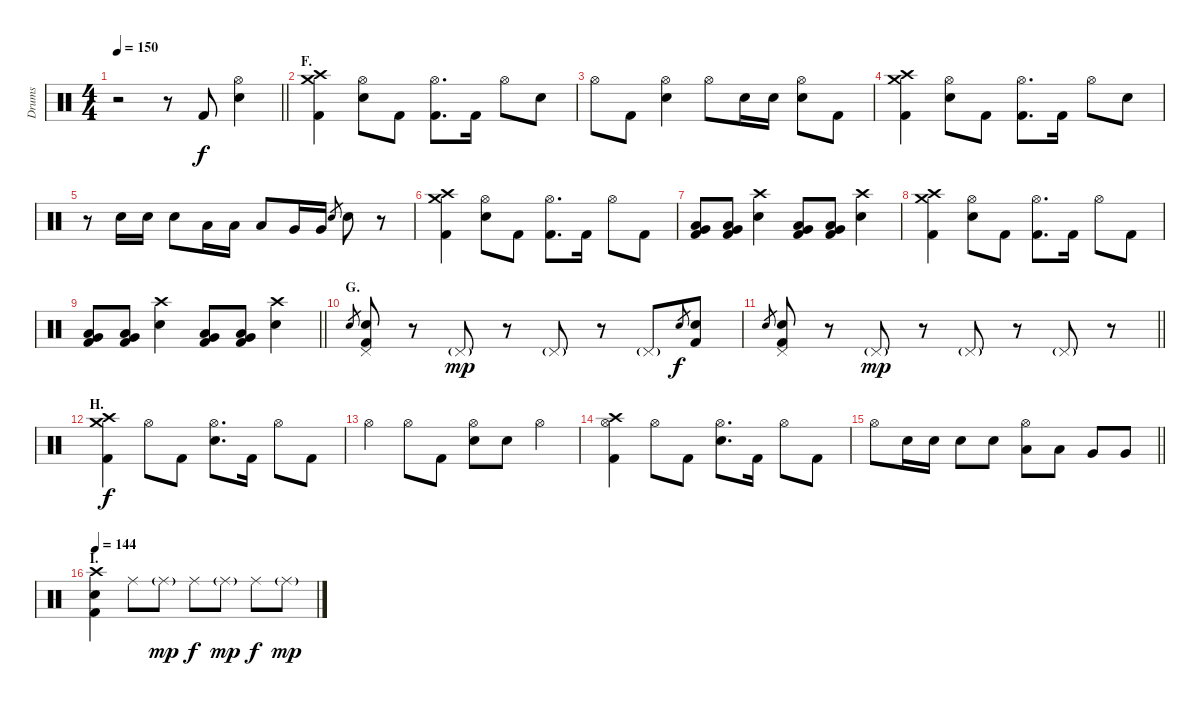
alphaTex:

\track ("Drums" "Drums") {instrument percussion}
\staff {score}
\articulation defaults
\ts (4 4)
\tempo 150
\clef neutral
\barLineRight lightlight
\ks c
r.2{dy f} r.8 "Kick (hit) 2".8 ("Hi-Hat (open)" "Electric Snare (hit)").4 |
\section ("" "F.")
("Crash medium (hit)" "Crash high (hit)" "Kick (hit) 2").4 ("Hi-Hat (open)" "Electric Snare (hit)").8 "Kick (hit) 2".8 ("Hi-Hat (open)" "Kick (hit) 2").8{d} "Kick (hit) 2".16 "Hi-Hat (open)".8 "Electric Snare (hit)".8 |
"Hi-Hat (open)".8 "Kick (hit) 2".8 ("Hi-Hat (open)" "Electric Snare (hit)").4 "Hi-Hat (open)".8 "Electric Snare (hit)".16 "Electric Snare (hit)".16 ("Hi-Hat (open)" "Electric Snare (hit)").8 "Kick (hit) 2".8 |
("Crash medium (hit)" "Crash high (hit)" "Kick (hit) 2").4 ("Hi-Hat (open)" "Electric Snare (hit)").8 "Kick (hit) 2".8 ("Hi-Hat (open)" "Kick (hit) 2").8{d} "Kick (hit) 2".16 "Hi-Hat (open)".8 "Electric Snare (hit)".8 |
r.8 "Electric Snare (hit)".16 "Electric Snare (hit)".16 "Electric Snare (hit)".8 "Low Tom (hit)".16 "Low Tom (hit)".16 "Low Tom (hit)".8 "Very Low Tom (hit)".16 "Very Low Tom (hit)".16 "Electric Snare (hit)".8{gr} "Electric Snare (hit)".8 r.8 |
("Crash medium (hit)" "Crash high (hit)" "Kick (hit) 2").4 ("Hi-Hat (open)" "Electric Snare (hit)").8 "Kick (hit) 2".8 ("Hi-Hat (open)" "Kick (hit) 2").8{d} "Kick (hit) 2".16 "Hi-Hat (open)".8 "Kick (hit) 2".8 |
("Very Low Tom (hit)" "Low Floor Tom (hit)" "Kick (hit) 2").8 ("Very Low Tom (hit)" "Low Floor Tom (hit)" "Kick (hit) 2").8 ("Crash high (hit)" "Electric Snare (hit)").4 ("Very Low Tom (hit)" "Low Floor Tom (hit)" "Kick (hit) 2").8 ("Very Low Tom (hit)" "Low Floor Tom (hit)" "Kick (hit) 2").8 ("Crash high (hit)" "Electric Snare (hit)").4 |
("Crash medium (hit)" "Crash high (hit)" "Kick (hit) 2").4 ("Hi-Hat (open)" "Electric Snare (hit)").8 "Kick (hit) 2".8 ("Hi-Hat (open)" "Kick (hit) 2").8{d} "Kick (hit) 2".16 "Hi-Hat (open)".8 "Kick (hit) 2".8 |
\barLineRight lightlight
("Very Low Tom (hit)" "Low Floor Tom (hit)" "Kick (hit) 2").8 ("Very Low Tom (hit)" "Low Floor Tom (hit)" "Kick (hit) 2").8 ("Crash high (hit)" "Electric Snare (hit)").4 ("Very Low Tom (hit)" "Low Floor Tom (hit)" "Kick (hit) 2").8 ("Very Low Tom (hit)" "Low Floor Tom (hit)" "Kick (hit) 2").8 ("Crash high (hit)" "Electric Snare (hit)").4 |
\section ("" "G.")
"Electric Snare (hit)".8{gr} ("Pedal Hi-Hat (hit)" "Electric Snare (hit)" "Kick (hit) 2").8 r.8 "Pedal Hi-Hat (hit)"{g}.8{dy mp} r.8 "Pedal Hi-Hat (hit)"{g}.8 r.8 "Pedal Hi-Hat (hit)"{g}.8 "Electric Snare (hit)".8{gr dy f} ("Electric Snare (hit)" "Kick (hit) 2").8 |
\barLineRight lightlight "Electric Snare (hit)".8{gr}
("Pedal Hi-Hat (hit)" "Electric Snare (hit)" "Kick (hit) 2").8 r.8 "Pedal Hi-Hat (hit)"{g}.8{dy mp} r.8 "Pedal Hi-Hat (hit)"{g}.8 r.8 "Pedal Hi-Hat (hit)"{g}.8 r.8 |
\section ("" "H.")
("Crash medium (hit)" "Crash high (hit)" "Kick (hit) 2").4{dy f} "Hi-Hat (open)".8 "Kick (hit) 2".8 ("Hi-Hat (open)" "Electric Snare (hit)").8{d} "Kick (hit) 2".16 "Hi-Hat (open)".8 "Kick (hit) 2".8 |
"Hi-Hat (open)".4 "Hi-Hat (open)".8 "Kick (hit) 2".8 ("Hi-Hat (open)" "Electric Snare (hit)").8 "Electric Snare (hit)".8 "Hi-Hat (open)".4 |
("Crash high (hit)" "Hi-Hat (open)" "Kick (hit) 2").4 "Hi-Hat (open)".8 "Kick (hit) 2".8 ("Hi-Hat (open)" "Electric Snare (hit)").8{d} "Kick (hit) 2".16 "Hi-Hat (open)".8 "Kick (hit) 2".8 |
\barLineRight lightlight "Hi-Hat (open)".8 "Electric Snare (hit)".16 "Electric Snare (hit)".16 "Electric Snare (hit)".8 "Electric Snare (hit)".8
("Hi-Hat (open)" "Low Tom (hit)").8 "Low Tom (hit)".8 "Very Low Tom (hit)".8 "Very Low Tom (hit)".8 |
\section ("" "I.")
\tempo 144
("Crash high (hit)" "Electric Snare (hit)" "Kick (hit) 2").4 "Ride (middle)".8 "Ride (middle)"{g}.8{dy mp} "Ride (middle)".8{dy f} "Ride (middle)"{g}.8{dy mp} "Ride (middle)".8{dy f} "Ride (middle)"{g}.8{dy mp}
